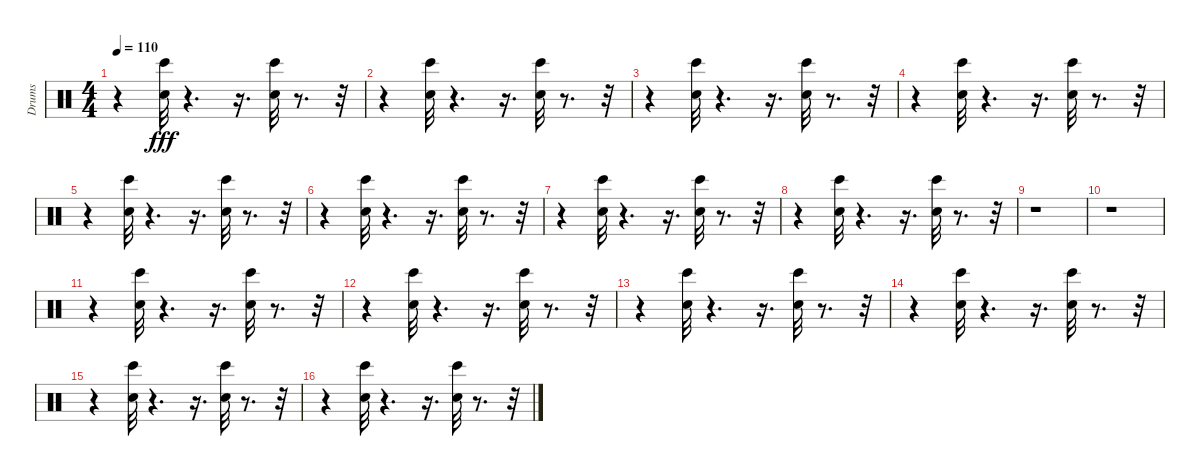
\track ("Drums" "Drums") {instrument percussion}
\staff {score}
\articulation defaults
\ts (4 4)
\tempo 110
\clef neutral
\ks c
r.4{dy fff} ("Snare (hit) 2" "Bongo High (hit)").32 r.4{d} r.16{d} ("Snare (hit) 2" "Bongo High (hit)").32 r.8{d} r.32 |
r.4 ("Snare (hit) 2" "Bongo High (hit)").32 r.4{d} r.16{d} ("Snare (hit) 2" "Bongo High (hit)").32 r.8{d} r.32 |
r.4 ("Snare (hit) 2" "Bongo High (hit)").32 r.4{d} r.16{d} ("Snare (hit) 2" "Bongo High (hit)").32 r.8{d} r.32 |
r.4 ("Snare (hit) 2" "Bongo High (hit)").32 r.4{d} r.16{d} ("Snare (hit) 2" "Bongo High (hit)").32 r.8{d} r.32 |
r.4 ("Snare (hit) 2" "Bongo High (hit)").32 r.4{d} r.16{d} ("Snare (hit) 2" "Bongo High (hit)").32 r.8{d} r.32 |
r.4 ("Snare (hit) 2" "Bongo High (hit)").32 r.4{d} r.16{d} ("Snare (hit) 2" "Bongo High (hit)").32 r.8{d} r.32 |
r.4 ("Snare (hit) 2" "Bongo High (hit)").32 r.4{d} r.16{d} ("Snare (hit) 2" "Bongo High (hit)").32 r.8{d} r.32 |
r.4 ("Snare (hit) 2" "Bongo High (hit)").32 r.4{d} r.16{d} ("Snare (hit) 2" "Bongo High (hit)").32 r.8{d} r.32 |
r.1 |
r.1 |
r.4 ("Snare (hit) 2" "Bongo High (hit)").32 r.4{d} r.16{d} ("Snare (hit) 2" "Bongo High (hit)").32 r.8{d} r.32 |
r.4 ("Snare (hit) 2" "Bongo High (hit)").32 r.4{d} r.16{d} ("Snare (hit) 2" "Bongo High (hit)").32 r.8{d} r.32 |
r.4 ("Snare (hit) 2" "Bongo High (hit)").32 r.4{d} r.16{d} ("Snare (hit) 2" "Bongo High (hit)").32 r.8{d} r.32 |
r.4 ("Snare (hit) 2" "Bongo High (hit)").32 r.4{d} r.16{d} ("Snare (hit) 2" "Bongo High (hit)").32 r.8{d} r.32 |
r.4 ("Snare (hit) 2" "Bongo High (hit)").32 r.4{d} r.16{d} ("Snare (hit) 2" "Bongo High (hit)").32 r.8{d} r.32 |
r.4 ("Snare (hit) 2" "Bongo High (hit)").32 r.4{d} r.16{d} ("Snare (hit) 2" "Bongo High (hit)").32 r.8{d} r.32
